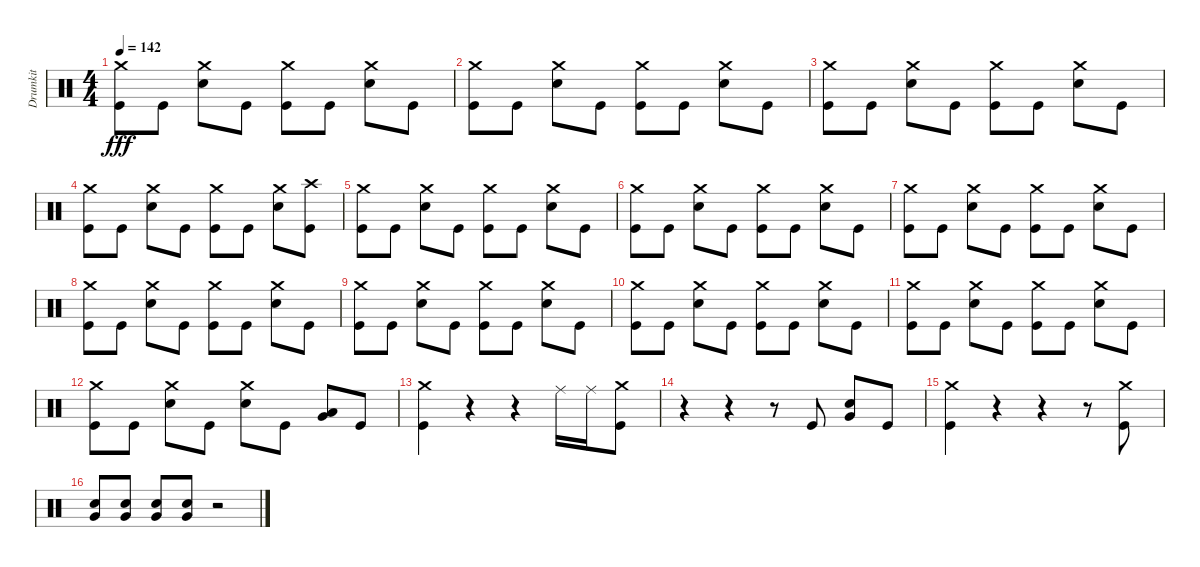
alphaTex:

\track ("Drumkit" "Drumkit") {instrument percussion}
\staff {score}
\articulation defaults
\ts (4 4)
\tempo 142
\clef neutral
\ks c
("Kick (hit)" "Crash medium (hit)").8{dy fff} "Kick (hit)".8 ("Snare (hit) 2" "Crash medium (hit)").8 "Kick (hit)".8 ("Kick (hit)" "Crash medium (hit)").8 "Kick (hit)".8 ("Snare (hit) 2" "Crash medium (hit)").8 "Kick (hit)".8 |
("Kick (hit)" "Crash medium (hit)").8 "Kick (hit)".8 ("Snare (hit) 2" "Crash medium (hit)").8 "Kick (hit)".8 ("Kick (hit)" "Crash medium (hit)").8 "Kick (hit)".8 ("Snare (hit) 2" "Crash medium (hit)").8 "Kick (hit)".8 |
("Kick (hit)" "Crash medium (hit)").8 "Kick (hit)".8 ("Snare (hit) 2" "Crash medium (hit)").8 "Kick (hit)".8 ("Kick (hit)" "Crash medium (hit)").8 "Kick (hit)".8 ("Snare (hit) 2" "Crash medium (hit)").8 "Kick (hit)".8 |
("Kick (hit)" "Crash medium (hit)").8 "Kick (hit)".8 ("Snare (hit) 2" "Crash medium (hit)").8 "Kick (hit)".8 ("Kick (hit)" "Crash medium (hit)").8 "Kick (hit)".8 ("Snare (hit) 2" "Crash medium (hit)").8 ("Kick (hit)" "Crash high (hit)").8 |
("Kick (hit)" "Crash medium (hit)").8 "Kick (hit)".8 ("Snare (hit) 2" "Crash medium (hit)").8 "Kick (hit)".8 ("Kick (hit)" "Crash medium (hit)").8 "Kick (hit)".8 ("Snare (hit) 2" "Crash medium (hit)").8 "Kick (hit)".8 |
("Kick (hit)" "Crash medium (hit)").8 "Kick (hit)".8 ("Snare (hit) 2" "Crash medium (hit)").8 "Kick (hit)".8 ("Kick (hit)" "Crash medium (hit)").8 "Kick (hit)".8 ("Snare (hit) 2" "Crash medium (hit)").8 "Kick (hit)".8 |
("Kick (hit)" "Crash medium (hit)").8 "Kick (hit)".8 ("Snare (hit) 2" "Crash medium (hit)").8 "Kick (hit)".8 ("Kick (hit)" "Crash medium (hit)").8 "Kick (hit)".8 ("Snare (hit) 2" "Crash medium (hit)").8 "Kick (hit)".8 |
("Kick (hit)" "Crash medium (hit)").8 "Kick (hit)".8 ("Snare (hit) 2" "Crash medium (hit)").8 "Kick (hit)".8 ("Kick (hit)" "Crash medium (hit)").8 "Kick (hit)".8 ("Snare (hit) 2" "Crash medium (hit)").8 "Kick (hit)".8 |
("Kick (hit)" "Crash medium (hit)").8 "Kick (hit)".8 ("Snare (hit) 2" "Crash medium (hit)").8 "Kick (hit)".8 ("Kick (hit)" "Crash medium (hit)").8 "Kick (hit)".8 ("Snare (hit) 2" "Crash medium (hit)").8 "Kick (hit)".8 |
("Kick (hit)" "Crash medium (hit)").8 "Kick (hit)".8 ("Snare (hit) 2" "Crash medium (hit)").8 "Kick (hit)".8 ("Kick (hit)" "Crash medium (hit)").8 "Kick (hit)".8 ("Snare (hit) 2" "Crash medium (hit)").8 "Kick (hit)".8 |
("Kick (hit)" "Crash medium (hit)").8 "Kick (hit)".8 ("Snare (hit) 2" "Crash medium (hit)").8 "Kick (hit)".8 ("Kick (hit)" "Crash medium (hit)").8 "Kick (hit)".8 ("Snare (hit) 2" "Crash medium (hit)").8 "Kick (hit)".8 |
("Kick (hit)" "Crash medium (hit)").8 "Kick (hit)".8 ("Snare (hit) 2" "Crash medium (hit)").8 "Kick (hit)".8 ("Snare (hit) 2" "Crash medium (hit)").8 "Kick (hit)".8 ("Very Low Tom (hit)" "Low Floor Tom (hit)").8 "Kick (hit)".8 |
("Kick (hit)" "Crash medium (hit)").4 r.4 r.4 "Ride (middle)".16 "Ride (middle)".16 ("Kick (hit)" "Crash medium (hit)").8 |
r.4 r.4 r.8 "Kick (hit)".8 ("Snare (hit) 2" "Very Low Tom (hit)").8 "Kick (hit)".8 |
("Kick (hit)" "Crash medium (hit)").4 r.4 r.4 r.8 ("Kick (hit)" "Crash medium (hit)").8 |
("Snare (hit) 2" "Very Low Tom (hit)").8 ("Snare (hit) 2" "Very Low Tom (hit)").8 ("Very Low Tom (hit)" "Snare (hit) 2").8 ("Snare (hit) 2" "Very Low Tom (hit)").8 r.2
